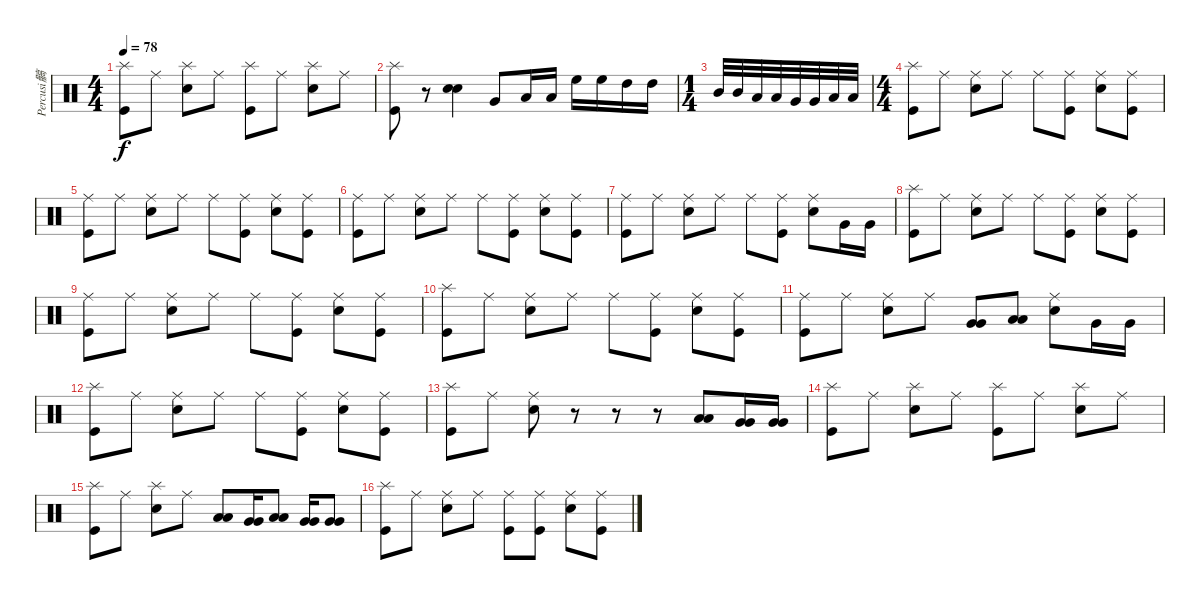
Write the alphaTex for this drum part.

\track ("Percusi髇" "Percusi髇") {instrument percussion}
\staff {score}
\articulation defaults
\ts (4 4)
\tempo 78
\clef neutral
\ks c
("Splash (hit)" "Kick (hit)").8{dy f} "Ride (middle)".8 ("Splash (hit)" "Snare (hit) 2").8 "Ride (middle)".8 ("Splash (hit)" "Kick (hit)").8 "Ride (middle)".8 ("Splash (hit)" "Snare (hit) 2").8 "Ride (middle)".8 |
("Splash (hit)" "Kick (hit)").8 r.8 ("Snare (hit) 2" "Snare (hit) 2").4 "Very Low Tom (hit)".8 "Low Tom (hit)".16 "Low Tom (hit)".16 "High Floor Tom (hit)".16 "High Floor Tom (hit)".16 "High Tom (hit)".16 "High Tom (hit)".16 |
\ts (1 4)
"Mid Tom (hit)".32 "Mid Tom (hit)".32 "Low Tom (hit)".32 "Low Tom (hit)".32 "Very Low Tom (hit)".32 "Very Low Tom (hit)".32 "Low Floor Tom (hit)".32 "Low Floor Tom (hit)".32 |
\ts (4 4)
("Splash (hit)" "Kick (hit)").8 "Ride (middle)".8 ("Ride (middle)" "Snare (hit) 2").8 "Ride (middle)".8 "Ride (middle)".8 ("Ride (middle)" "Kick (hit)").8 ("Ride (middle)" "Snare (hit) 2").8 ("Ride (middle)" "Kick (hit)").8 |
("Ride (middle)" "Kick (hit)").8 "Ride (middle)".8 ("Ride (middle)" "Snare (hit) 2").8 "Ride (middle)".8 "Ride (middle)".8 ("Ride (middle)" "Kick (hit)").8 ("Ride (middle)" "Snare (hit) 2").8 ("Ride (middle)" "Kick (hit)").8 |
("Ride (middle)" "Kick (hit)").8 "Ride (middle)".8 ("Ride (middle)" "Snare (hit) 2").8 "Ride (middle)".8 "Ride (middle)".8 ("Ride (middle)" "Kick (hit)").8 ("Ride (middle)" "Snare (hit) 2").8 ("Ride (middle)" "Kick (hit)").8 |
("Ride (middle)" "Kick (hit)").8 "Ride (middle)".8 ("Ride (middle)" "Snare (hit) 2").8 "Ride (middle)".8 "Ride (middle)".8 ("Ride (middle)" "Kick (hit)").8 ("Ride (middle)" "Snare (hit) 2").8 "Very Low Tom (hit)".16 "Very Low Tom (hit)".16 |
("Splash (hit)" "Kick (hit)").8 "Ride (middle)".8 ("Ride (middle)" "Snare (hit) 2").8 "Ride (middle)".8 "Ride (middle)".8 ("Ride (middle)" "Kick (hit)").8 ("Ride (middle)" "Snare (hit) 2").8 ("Ride (middle)" "Kick (hit)").8 |
("Ride (middle)" "Kick (hit)").8 "Ride (middle)".8 ("Ride (middle)" "Snare (hit) 2").8 "Ride (middle)".8 "Ride (middle)".8 ("Ride (middle)" "Kick (hit)").8 ("Ride (middle)" "Snare (hit) 2").8 ("Ride (middle)" "Kick (hit)").8 |
("Splash (hit)" "Kick (hit)").8 "Ride (middle)".8 ("Ride (middle)" "Snare (hit) 2").8 "Ride (middle)".8 "Ride (middle)".8 ("Ride (middle)" "Kick (hit)").8 ("Ride (middle)" "Snare (hit) 2").8 ("Ride (middle)" "Kick (hit)").8 |
("Ride (middle)" "Kick (hit)").8 "Ride (middle)".8 ("Ride (middle)" "Snare (hit) 2").8 "Ride (middle)".8 ("Very Low Tom (hit)" "Very Low Tom (hit)").8 ("Low Tom (hit)" "Low Tom (hit)").8 ("Ride (middle)" "Snare (hit) 2").8 "Very Low Tom (hit)".16 "Very Low Tom (hit)".16 |
("Splash (hit)" "Kick (hit)").8 "Ride (middle)".8 ("Ride (middle)" "Snare (hit) 2").8 "Ride (middle)".8 "Ride (middle)".8 ("Ride (middle)" "Kick (hit)").8 ("Ride (middle)" "Snare (hit) 2").8 ("Ride (middle)" "Kick (hit)").8 |
("Splash (hit)" "Kick (hit)").8 "Ride (middle)".8 ("Ride (middle)" "Snare (hit) 2").8 r.8 r.8 r.8 ("Low Tom (hit)" "Low Tom (hit)").8 ("Very Low Tom (hit)" "Very Low Tom (hit)").16 ("Very Low Tom (hit)" "Very Low Tom (hit)").16 |
("Splash (hit)" "Kick (hit)").8 "Ride (middle)".8 ("Splash (hit)" "Snare (hit) 2").8 "Ride (middle)".8 ("Splash (hit)" "Kick (hit)").8 "Ride (middle)".8 ("Splash (hit)" "Snare (hit) 2").8 "Ride (middle)".8 |
("Splash (hit)" "Kick (hit)").8 "Ride (middle)".8 ("Splash (hit)" "Snare (hit) 2").8 "Ride (middle)".8 ("Low Tom (hit)" "Low Tom (hit)").8 ("Very Low Tom (hit)" "Very Low Tom (hit)").16 ("Low Tom (hit)" "Low Tom (hit)").8 ("Very Low Tom (hit)" "Very Low Tom (hit)").16 ("Very Low Tom (hit)" "Very Low Tom (hit)").8 |
("Splash (hit)" "Kick (hit)").8 "Ride (middle)".8 ("Ride (middle)" "Snare (hit) 2").8 "Ride (middle)".8 ("Ride (middle)" "Kick (hit)").8 ("Ride (middle)" "Kick (hit)").8 ("Ride (middle)" "Snare (hit) 2").8 ("Ride (middle)" "Kick (hit)").8
